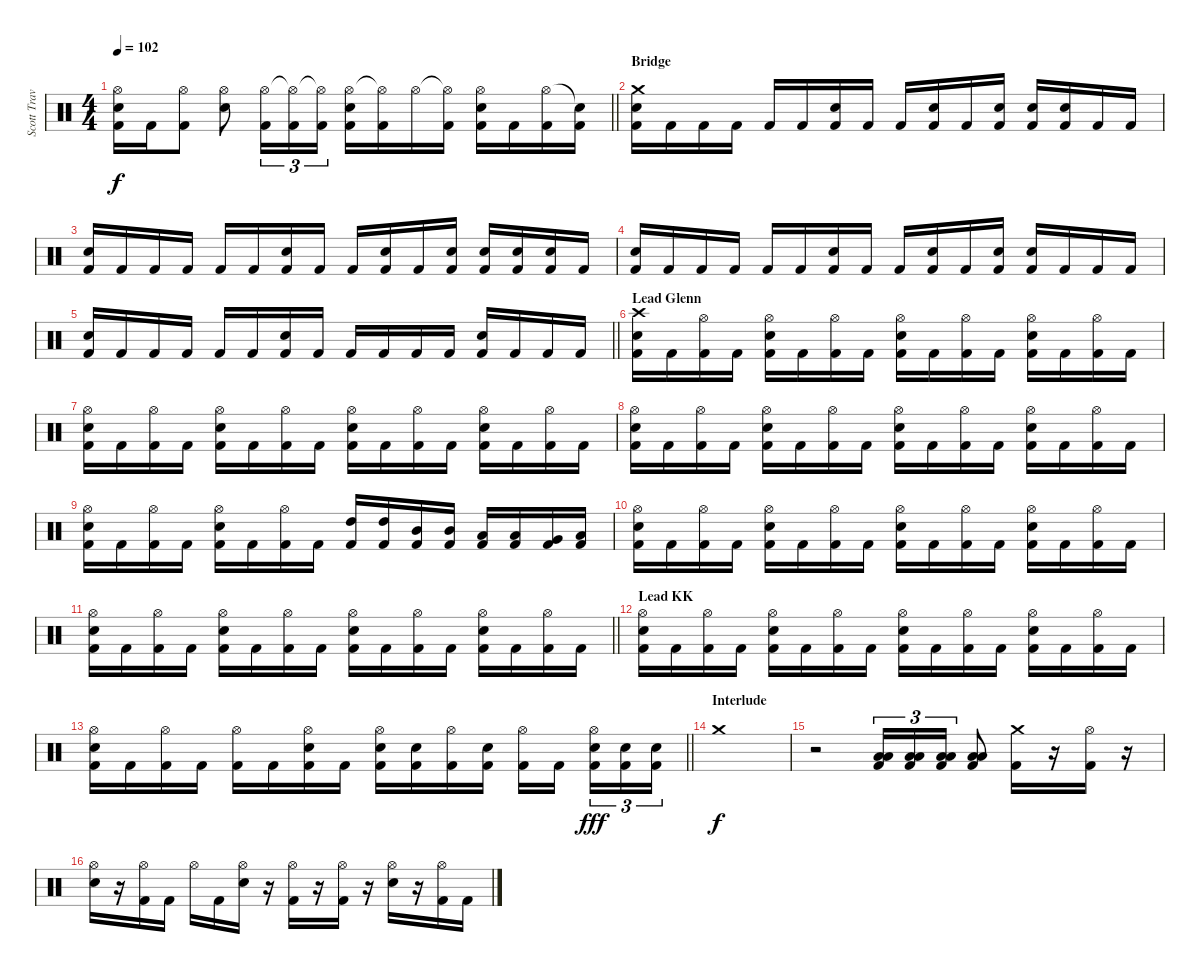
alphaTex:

\track ("Scott Travis" "Scott Trav") {instrument percussion}
\staff {score}
\articulation defaults
\ts (4 4)
\tempo 102
\clef neutral
\barLineRight lightlight
\ks c
("Hi-Hat (open)" "Snare (hit) 2" "Kick (hit) 2").16{dy f} "Kick (hit) 2".16 ("Hi-Hat (open)" "Kick (hit) 2").8 ("Hi-Hat (open)" "Snare (hit) 2").8 ("Hi-Hat (open)" "Kick (hit) 2").16{tu (3 2)} ("Hi-Hat (open)"{t} "Kick (hit) 2").16{tu (3 2)} ("Hi-Hat (open)"{t} "Kick (hit) 2").16{tu (3 2)} ("Hi-Hat (open)" "Snare (hit) 2" "Kick (hit) 2").16 ("Hi-Hat (open)"{t} "Kick (hit) 2").16 "Hi-Hat (open)".16 ("Hi-Hat (open)"{t} "Kick (hit) 2").16 ("Hi-Hat (open)" "Snare (hit) 2" "Kick (hit) 2").16 "Kick (hit) 2".16 ("Hi-Hat (open)" "Kick (hit) 2").16 ("Snare (hit)"{t} "Kick (hit) 2").16 |
\section ("" "Bridge")
("Crash medium (hit)" "Snare (hit) 2" "Kick (hit) 2").16 "Kick (hit) 2".16 "Kick (hit) 2".16 "Kick (hit) 2".16 "Kick (hit) 2".16 "Kick (hit) 2".16 ("Snare (hit) 2" "Kick (hit) 2").16 "Kick (hit) 2".16 "Kick (hit) 2".16 ("Snare (hit) 2" "Kick (hit) 2").16 "Kick (hit) 2".16 ("Snare (hit) 2" "Kick (hit) 2").16 ("Snare (hit) 2" "Kick (hit) 2").16 ("Snare (hit) 2" "Kick (hit) 2").16 "Kick (hit) 2".16 "Kick (hit) 2".16 |
("Snare (hit) 2" "Kick (hit) 2").16 "Kick (hit) 2".16 "Kick (hit) 2".16 "Kick (hit) 2".16 "Kick (hit) 2".16 "Kick (hit) 2".16 ("Snare (hit) 2" "Kick (hit) 2").16 "Kick (hit) 2".16 "Kick (hit) 2".16 ("Snare (hit) 2" "Kick (hit) 2").16 "Kick (hit) 2".16 ("Snare (hit) 2" "Kick (hit) 2").16 ("Snare (hit) 2" "Kick (hit) 2").16 ("Snare (hit) 2" "Kick (hit) 2").16 ("Snare (hit) 2" "Kick (hit) 2").16 "Kick (hit) 2".16 |
("Snare (hit) 2" "Kick (hit) 2").16 "Kick (hit) 2".16 "Kick (hit) 2".16 "Kick (hit) 2".16 "Kick (hit) 2".16 "Kick (hit) 2".16 ("Snare (hit) 2" "Kick (hit) 2").16 "Kick (hit) 2".16 "Kick (hit) 2".16 ("Snare (hit) 2" "Kick (hit) 2").16 "Kick (hit) 2".16 ("Snare (hit) 2" "Kick (hit) 2").16 ("Snare (hit) 2" "Kick (hit) 2").16 "Kick (hit) 2".16 "Kick (hit) 2".16 "Kick (hit) 2".16 |
\barLineRight lightlight
("Snare (hit) 2" "Kick (hit) 2").16 "Kick (hit) 2".16 "Kick (hit) 2".16 "Kick (hit) 2".16 "Kick (hit) 2".16 "Kick (hit) 2".16 ("Snare (hit) 2" "Kick (hit) 2").16 "Kick (hit) 2".16 "Kick (hit) 2".16 "Kick (hit) 2".16 "Kick (hit) 2".16 "Kick (hit) 2".16 ("Snare (hit) 2" "Kick (hit) 2").16 "Kick (hit) 2".16 "Kick (hit) 2".16 "Kick (hit) 2".16 |
\section ("" "Lead Glenn")
("Crash high (hit)" "Snare (hit) 2" "Kick (hit) 2").16 "Kick (hit) 2".16 ("Hi-Hat (open)" "Kick (hit) 2").16 "Kick (hit) 2".16 ("Hi-Hat (open)" "Snare (hit) 2" "Kick (hit) 2").16 "Kick (hit) 2".16 ("Hi-Hat (open)" "Kick (hit) 2").16 "Kick (hit) 2".16 ("Hi-Hat (open)" "Snare (hit) 2" "Kick (hit) 2").16 "Kick (hit) 2".16 ("Hi-Hat (open)" "Kick (hit) 2").16 "Kick (hit) 2".16 ("Hi-Hat (open)" "Snare (hit) 2" "Kick (hit) 2").16 "Kick (hit) 2".16 ("Hi-Hat (open)" "Kick (hit) 2").16 "Kick (hit) 2".16 |
("Hi-Hat (open)" "Snare (hit) 2" "Kick (hit) 2").16 "Kick (hit) 2".16 ("Hi-Hat (open)" "Kick (hit) 2").16 "Kick (hit) 2".16 ("Hi-Hat (open)" "Snare (hit) 2" "Kick (hit) 2").16 "Kick (hit) 2".16 ("Hi-Hat (open)" "Kick (hit) 2").16 "Kick (hit) 2".16 ("Hi-Hat (open)" "Snare (hit) 2" "Kick (hit) 2").16 "Kick (hit) 2".16 ("Hi-Hat (open)" "Kick (hit) 2").16 "Kick (hit) 2".16 ("Hi-Hat (open)" "Snare (hit) 2" "Kick (hit) 2").16 "Kick (hit) 2".16 ("Hi-Hat (open)" "Kick (hit) 2").16 "Kick (hit) 2".16 |
("Hi-Hat (open)" "Snare (hit) 2" "Kick (hit) 2").16 "Kick (hit) 2".16 ("Hi-Hat (open)" "Kick (hit) 2").16 "Kick (hit) 2".16 ("Hi-Hat (open)" "Snare (hit) 2" "Kick (hit) 2").16 "Kick (hit) 2".16 ("Hi-Hat (open)" "Kick (hit) 2").16 "Kick (hit) 2".16 ("Hi-Hat (open)" "Snare (hit) 2" "Kick (hit) 2").16 "Kick (hit) 2".16 ("Hi-Hat (open)" "Kick (hit) 2").16 "Kick (hit) 2".16 ("Hi-Hat (open)" "Snare (hit) 2" "Kick (hit) 2").16 "Kick (hit) 2".16 ("Hi-Hat (open)" "Kick (hit) 2").16 "Kick (hit) 2".16 |
("Hi-Hat (open)" "Snare (hit) 2" "Kick (hit) 2").16 "Kick (hit) 2".16 ("Hi-Hat (open)" "Kick (hit) 2").16 "Kick (hit) 2".16 ("Hi-Hat (open)" "Snare (hit) 2" "Kick (hit) 2").16 "Kick (hit) 2".16 ("Hi-Hat (open)" "Kick (hit) 2").16 "Kick (hit) 2".16 ("High Tom (hit)" "Kick (hit) 2").16 ("High Tom (hit)" "Kick (hit) 2").16 ("Mid Tom (hit)" "Kick (hit) 2").16 ("Mid Tom (hit)" "Kick (hit) 2").16 ("Low Tom (hit)" "Kick (hit) 2").16 ("Low Tom (hit)" "Kick (hit) 2").16 ("Very Low Tom (hit)" "Kick (hit) 2").16 ("Low Floor Tom (hit)" "Kick (hit) 2").16 |
("Hi-Hat (open)" "Snare (hit) 2" "Kick (hit) 2").16 "Kick (hit) 2".16 ("Hi-Hat (open)" "Kick (hit) 2").16 "Kick (hit) 2".16 ("Hi-Hat (open)" "Snare (hit) 2" "Kick (hit) 2").16 "Kick (hit) 2".16 ("Hi-Hat (open)" "Kick (hit) 2").16 "Kick (hit) 2".16 ("Hi-Hat (open)" "Snare (hit) 2" "Kick (hit) 2").16 "Kick (hit) 2".16 ("Hi-Hat (open)" "Kick (hit) 2").16 "Kick (hit) 2".16 ("Hi-Hat (open)" "Snare (hit) 2" "Kick (hit) 2").16 "Kick (hit) 2".16 ("Hi-Hat (open)" "Kick (hit) 2").16 "Kick (hit) 2".16 |
\barLineRight lightlight
("Hi-Hat (open)" "Snare (hit) 2" "Kick (hit) 2").16 "Kick (hit) 2".16 ("Hi-Hat (open)" "Kick (hit) 2").16 "Kick (hit) 2".16 ("Hi-Hat (open)" "Snare (hit) 2" "Kick (hit) 2").16 "Kick (hit) 2".16 ("Hi-Hat (open)" "Kick (hit) 2").16 "Kick (hit) 2".16 ("Hi-Hat (open)" "Snare (hit) 2" "Kick (hit) 2").16 "Kick (hit) 2".16 ("Hi-Hat (open)" "Kick (hit) 2").16 "Kick (hit) 2".16 ("Hi-Hat (open)" "Snare (hit) 2" "Kick (hit) 2").16 "Kick (hit) 2".16 ("Hi-Hat (open)" "Kick (hit) 2").16 "Kick (hit) 2".16 |
\section ("" "Lead KK")
("Hi-Hat (open)" "Snare (hit) 2" "Kick (hit) 2").16 "Kick (hit) 2".16 ("Hi-Hat (open)" "Kick (hit) 2").16 "Kick (hit) 2".16 ("Hi-Hat (open)" "Snare (hit) 2" "Kick (hit) 2").16 "Kick (hit) 2".16 ("Hi-Hat (open)" "Kick (hit) 2").16 "Kick (hit) 2".16 ("Hi-Hat (open)" "Snare (hit) 2" "Kick (hit) 2").16 "Kick (hit) 2".16 ("Hi-Hat (open)" "Kick (hit) 2").16 "Kick (hit) 2".16 ("Hi-Hat (open)" "Snare (hit) 2" "Kick (hit) 2").16 "Kick (hit) 2".16 ("Hi-Hat (open)" "Kick (hit) 2").16 "Kick (hit) 2".16 |
\barLineRight lightlight
("Hi-Hat (open)" "Snare (hit) 2" "Kick (hit) 2").16 "Kick (hit) 2".16 ("Hi-Hat (open)" "Kick (hit) 2").16 "Kick (hit) 2".16 ("Hi-Hat (open)" "Kick (hit) 2").16 "Kick (hit) 2".16 ("Hi-Hat (open)" "Snare (hit) 2" "Kick (hit) 2").16 "Kick (hit) 2".16 ("Hi-Hat (open)" "Snare (hit) 2" "Kick (hit) 2").16 ("Snare (hit) 2" "Kick (hit) 2").16 ("Hi-Hat (open)" "Kick (hit) 2").16 ("Snare (hit) 2" "Kick (hit) 2").16 ("Hi-Hat (open)" "Kick (hit) 2").16 "Kick (hit) 2".16{beam splitsecondary} ("Hi-Hat (open)" "Snare (hit) 2" "Kick (hit) 2").16{tu (3 2) dy fff} ("Snare (hit) 2" "Kick (hit) 2").16{tu (3 2)} ("Snare (hit) 2" "Kick (hit) 2").16{tu (3 2)} |
\section ("" "Interlude")
"Crash medium (hit)".1{dy f} |
r.2 ("Low Floor Tom (hit)" "Low Tom (hit)" "Kick (hit) 2").16{tu (3 2)} ("Low Floor Tom (hit)" "Low Tom (hit)" "Kick (hit) 2").16{tu (3 2)} ("Low Floor Tom (hit)" "Low Tom (hit)" "Kick (hit) 2").16{tu (3 2)} ("Low Floor Tom (hit)" "Low Tom (hit)" "Kick (hit) 2").8 ("Crash medium (hit)" "Kick (hit) 2").16 r.16 ("Hi-Hat (open)" "Kick (hit) 2").16 r.16 |
("Hi-Hat (open)" "Snare (hit) 2").16 r.16 ("Hi-Hat (open)" "Kick (hit) 2").16 "Kick (hit) 2".16 "Hi-Hat (open)".16 "Kick (hit) 2".16 ("Hi-Hat (open)" "Snare (hit) 2").16 r.16 ("Hi-Hat (open)" "Kick (hit) 2").16 r.16 ("Hi-Hat (open)" "Kick (hit) 2").16 r.16 ("Hi-Hat (open)" "Snare (hit) 2").16 r.16 ("Hi-Hat (open)" "Kick (hit) 2").16 "Kick (hit) 2".16
